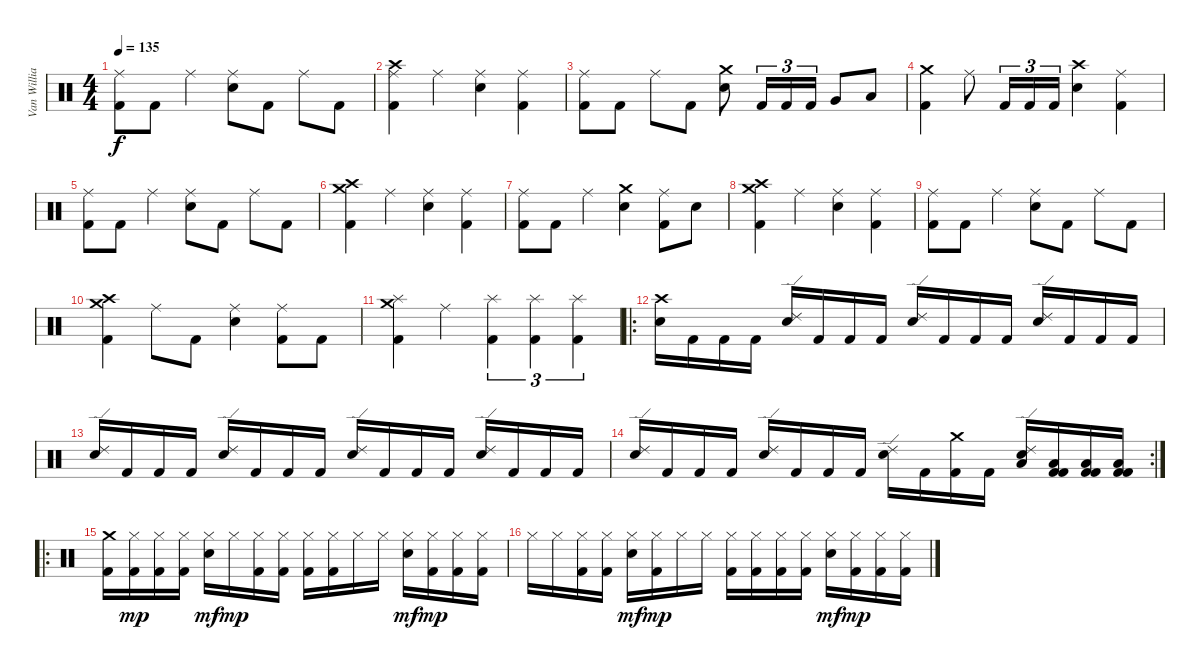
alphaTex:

\track ("Van Williams" "Van Willia") {instrument percussion}
\staff {score}
\articulation defaults
\ts (4 4)
\tempo 135
\clef neutral
\ks c
("Ride (middle)" "Kick (hit) 2").8{dy f} "Kick (hit) 2".8 "Ride (middle)".4 ("Ride (middle)" "Electric Snare (hit)").8 "Kick (hit) 2".8 "Ride (middle)".8 "Kick (hit) 2".8 |
("Crash high (hit)" "Ride (middle)" "Kick (hit) 2").4 "Ride (middle)".4 ("Ride (middle)" "Electric Snare (hit)").4 ("Ride (middle)" "Kick (hit) 2").4 |
("Ride (middle)" "Kick (hit) 2").8 "Kick (hit) 2".8 "Ride (middle)".8 "Kick (hit) 2".8 ("Crash medium (hit)" "Electric Snare (hit)").8 "Kick (hit) 2".16{tu (3 2)} "Kick (hit) 2".16{tu (3 2)} "Kick (hit) 2".16{tu (3 2)} "Very Low Tom (hit)".8 "Low Floor Tom (hit)".8 |
("Crash medium (hit)" "Kick (hit) 2").4 "Ride (middle)".8 "Kick (hit) 2".16{tu (3 2)} "Kick (hit) 2".16{tu (3 2)} "Kick (hit) 2".16{tu (3 2)} ("Crash high (hit)" "Electric Snare (hit)").4 ("Ride (middle)" "Kick (hit) 2").4 |
("Ride (middle)" "Kick (hit) 2").8 "Kick (hit) 2".8 "Ride (middle)".4 ("Ride (middle)" "Electric Snare (hit)").8 "Kick (hit) 2".8 "Ride (middle)".8 "Kick (hit) 2".8 |
("Crash medium (hit)" "Crash high (hit)" "Kick (hit) 2").4 "Ride (middle)".4 ("Ride (middle)" "Electric Snare (hit)").4 ("Ride (middle)" "Kick (hit) 2").4 |
("Ride (middle)" "Kick (hit) 2").8 "Kick (hit) 2".8 "Ride (middle)".4 ("Crash medium (hit)" "Electric Snare (hit)").4 ("Ride (middle)" "Kick (hit) 2").8 "Electric Snare (hit)".8 |
("Crash medium (hit)" "Crash high (hit)" "Kick (hit) 2").4 "Ride (middle)".4 ("Ride (middle)" "Electric Snare (hit)").4 ("Ride (middle)" "Kick (hit) 2").4 |
("Ride (middle)" "Kick (hit) 2").8 "Kick (hit) 2".8 "Ride (middle)".4 ("Ride (middle)" "Electric Snare (hit)").8 "Kick (hit) 2".8 "Ride (middle)".8 "Kick (hit) 2".8 |
("Crash medium (hit)" "Crash high (hit)" "Kick (hit) 2").4 "Ride (middle)".8 "Kick (hit) 2".8 ("Ride (middle)" "Electric Snare (hit)").4 ("Ride (middle)" "Kick (hit) 2").8 "Kick (hit) 2".8 |
("Crash medium (hit)" "Splash (hit)" "Kick (hit) 2").4 "Ride (middle)".4 ("Splash (hit)" "Kick (hit) 2").4{tu (3 2)} ("Splash (hit)" "Kick (hit) 2").4{tu (3 2)} ("Splash (hit)" "Kick (hit) 2").4{tu (3 2)} |
\ro
("Crash high (hit)" "Electric Snare (hit)").16 "Kick (hit) 2".16 "Kick (hit) 2".16 "Kick (hit) 2".16 ("Ride (edge) 2" "Electric Snare (hit)").16 "Kick (hit) 2".16 "Kick (hit) 2".16 "Kick (hit) 2".16 ("Ride (edge) 2" "Electric Snare (hit)").16 "Kick (hit) 2".16 "Kick (hit) 2".16 "Kick (hit) 2".16 ("Ride (edge) 2" "Electric Snare (hit)").16 "Kick (hit) 2".16 "Kick (hit) 2".16 "Kick (hit) 2".16 |
("Ride (edge) 2" "Electric Snare (hit)").16 "Kick (hit) 2".16 "Kick (hit) 2".16 "Kick (hit) 2".16 ("Ride (edge) 2" "Electric Snare (hit)").16 "Kick (hit) 2".16 "Kick (hit) 2".16 "Kick (hit) 2".16 ("Ride (edge) 2" "Electric Snare (hit)").16 "Kick (hit) 2".16 "Kick (hit) 2".16 "Kick (hit) 2".16 ("Ride (edge) 2" "Electric Snare (hit)").16 "Kick (hit) 2".16 "Kick (hit) 2".16 "Kick (hit) 2".16 |
\rc 2
("Ride (edge) 2" "Electric Snare (hit)").16 "Kick (hit) 2".16 "Kick (hit) 2".16 "Kick (hit) 2".16 ("Ride (edge) 2" "Electric Snare (hit)").16 "Kick (hit) 2".16 "Kick (hit) 2".16 "Kick (hit) 2".16 ("Ride (edge) 2" "Electric Snare (hit)").16 "Kick (hit) 2".16 ("Crash medium (hit)" "Kick (hit) 2").16 "Kick (hit) 2".16 ("Ride (edge) 2" "Low Floor Tom (hit)" "Electric Snare (hit)").16 ("Low Floor Tom (hit)" "Kick (hit) 2" "Kick (hit) 2").16 ("Low Floor Tom (hit)" "Kick (hit) 2" "Kick (hit) 2").16 ("Low Floor Tom (hit)" "Kick (hit) 2" "Kick (hit) 2").16 |
\ro
("Crash medium (hit)" "Kick (hit) 2").16 ("Hi-Hat (closed)" "Kick (hit) 2").16{dy mp} ("Hi-Hat (closed)" "Kick (hit) 2").16 ("Hi-Hat (closed)" "Kick (hit) 2").16 ("Hi-Hat (closed)" "Electric Snare (hit)").16{dy mf} "Hi-Hat (closed)".16{dy mp} ("Hi-Hat (closed)" "Kick (hit) 2").16 ("Hi-Hat (closed)" "Kick (hit) 2").16 ("Hi-Hat (closed)" "Kick (hit) 2").16 ("Hi-Hat (closed)" "Kick (hit) 2").16 "Hi-Hat (closed)".16 "Hi-Hat (closed)".16 ("Hi-Hat (closed)" "Electric Snare (hit)").16{dy mf} ("Hi-Hat (closed)" "Kick (hit) 2").16{dy mp} ("Hi-Hat (closed)" "Kick (hit) 2").16 ("Hi-Hat (closed)" "Kick (hit) 2").16 |
"Hi-Hat (closed)".16 "Hi-Hat (closed)".16 ("Hi-Hat (closed)" "Kick (hit) 2").16 ("Hi-Hat (closed)" "Kick (hit) 2").16 ("Hi-Hat (closed)" "Electric Snare (hit)").16{dy mf} ("Hi-Hat (closed)" "Kick (hit) 2").16{dy mp} "Hi-Hat (closed)".16 "Hi-Hat (closed)".16 ("Hi-Hat (closed)" "Kick (hit) 2").16 ("Hi-Hat (closed)" "Kick (hit) 2").16 ("Hi-Hat (closed)" "Kick (hit) 2").16 ("Hi-Hat (closed)" "Kick (hit) 2").16 ("Hi-Hat (closed)" "Electric Snare (hit)").16{dy mf} ("Hi-Hat (closed)" "Kick (hit) 2").16{dy mp} ("Hi-Hat (closed)" "Kick (hit) 2").16 ("Hi-Hat (closed)" "Kick (hit) 2").16
